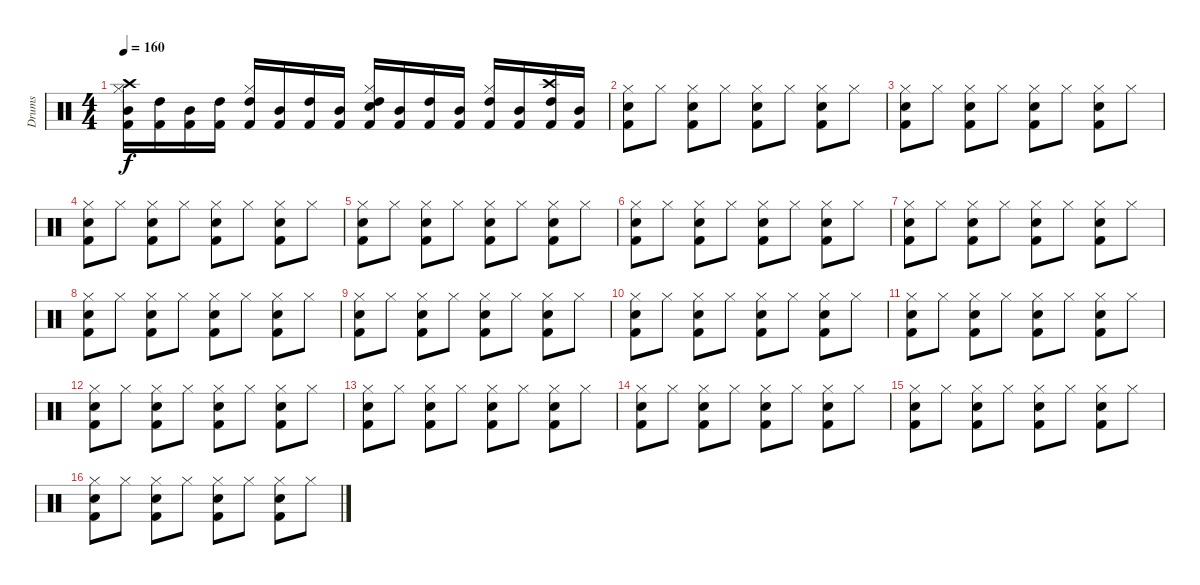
\track ("Drums" "Drums") {instrument percussion}
\staff {score}
\articulation defaults
\ts (4 4)
\tempo 160
\clef neutral
\ks c
("Kick (hit) 2" "Hi-Hat (closed)" "Mid Tom (hit)" "Crash high (hit)").16{dy f} ("Kick (hit) 2" "High Tom (hit)").16 ("Kick (hit) 2" "Mid Tom (hit)").16 ("Kick (hit) 2" "High Tom (hit)").16 ("Kick (hit) 2" "Hi-Hat (closed)" "High Tom (hit)").16 ("Kick (hit) 2" "Mid Tom (hit)").16 ("Kick (hit) 2" "High Tom (hit)").16 ("Kick (hit) 2" "Mid Tom (hit)").16 ("Kick (hit) 2" "Hi-Hat (closed)" "Electric Snare (hit)" "High Tom (hit)").16 ("Kick (hit) 2" "Mid Tom (hit)").16 ("Kick (hit) 2" "High Tom (hit)").16 ("Kick (hit) 2" "Mid Tom (hit)").16 ("Kick (hit) 2" "Hi-Hat (closed)" "High Tom (hit)").16 ("Kick (hit) 2" "Mid Tom (hit)").16 ("Kick (hit) 2" "High Tom (hit)" "Crash high (hit)").16 ("Kick (hit) 2" "Mid Tom (hit)").16 |
("Hi-Hat (closed)" "Kick (hit) 2" "Electric Snare (hit)").8 "Hi-Hat (closed)".8 ("Hi-Hat (closed)" "Kick (hit) 2" "Electric Snare (hit)").8 "Hi-Hat (closed)".8 ("Hi-Hat (closed)" "Kick (hit) 2" "Electric Snare (hit)").8 "Hi-Hat (closed)".8 ("Hi-Hat (closed)" "Kick (hit) 2" "Electric Snare (hit)").8 "Hi-Hat (closed)".8 |
("Hi-Hat (closed)" "Kick (hit) 2" "Electric Snare (hit)").8 "Hi-Hat (closed)".8 ("Hi-Hat (closed)" "Kick (hit) 2" "Electric Snare (hit)").8 "Hi-Hat (closed)".8 ("Hi-Hat (closed)" "Kick (hit) 2" "Electric Snare (hit)").8 "Hi-Hat (closed)".8 ("Hi-Hat (closed)" "Kick (hit) 2" "Electric Snare (hit)").8 "Hi-Hat (closed)".8 |
("Hi-Hat (closed)" "Kick (hit) 2" "Electric Snare (hit)").8 "Hi-Hat (closed)".8 ("Hi-Hat (closed)" "Kick (hit) 2" "Electric Snare (hit)").8 "Hi-Hat (closed)".8 ("Hi-Hat (closed)" "Kick (hit) 2" "Electric Snare (hit)").8 "Hi-Hat (closed)".8 ("Hi-Hat (closed)" "Kick (hit) 2" "Electric Snare (hit)").8 "Hi-Hat (closed)".8 |
("Hi-Hat (closed)" "Kick (hit) 2" "Electric Snare (hit)").8 "Hi-Hat (closed)".8 ("Hi-Hat (closed)" "Kick (hit) 2" "Electric Snare (hit)").8 "Hi-Hat (closed)".8 ("Hi-Hat (closed)" "Kick (hit) 2" "Electric Snare (hit)").8 "Hi-Hat (closed)".8 ("Hi-Hat (closed)" "Kick (hit) 2" "Electric Snare (hit)").8 "Hi-Hat (closed)".8 |
("Hi-Hat (closed)" "Kick (hit) 2" "Electric Snare (hit)").8 "Hi-Hat (closed)".8 ("Hi-Hat (closed)" "Kick (hit) 2" "Electric Snare (hit)").8 "Hi-Hat (closed)".8 ("Hi-Hat (closed)" "Kick (hit) 2" "Electric Snare (hit)").8 "Hi-Hat (closed)".8 ("Hi-Hat (closed)" "Kick (hit) 2" "Electric Snare (hit)").8 "Hi-Hat (closed)".8 |
("Hi-Hat (closed)" "Kick (hit) 2" "Electric Snare (hit)").8 "Hi-Hat (closed)".8 ("Hi-Hat (closed)" "Kick (hit) 2" "Electric Snare (hit)").8 "Hi-Hat (closed)".8 ("Hi-Hat (closed)" "Kick (hit) 2" "Electric Snare (hit)").8 "Hi-Hat (closed)".8 ("Hi-Hat (closed)" "Kick (hit) 2" "Electric Snare (hit)").8 "Hi-Hat (closed)".8 |
("Hi-Hat (closed)" "Kick (hit) 2" "Electric Snare (hit)").8 "Hi-Hat (closed)".8 ("Hi-Hat (closed)" "Kick (hit) 2" "Electric Snare (hit)").8 "Hi-Hat (closed)".8 ("Hi-Hat (closed)" "Kick (hit) 2" "Electric Snare (hit)").8 "Hi-Hat (closed)".8 ("Hi-Hat (closed)" "Kick (hit) 2" "Electric Snare (hit)").8 "Hi-Hat (closed)".8 |
("Hi-Hat (closed)" "Kick (hit) 2" "Electric Snare (hit)").8 "Hi-Hat (closed)".8 ("Hi-Hat (closed)" "Kick (hit) 2" "Electric Snare (hit)").8 "Hi-Hat (closed)".8 ("Hi-Hat (closed)" "Kick (hit) 2" "Electric Snare (hit)").8 "Hi-Hat (closed)".8 ("Hi-Hat (closed)" "Kick (hit) 2" "Electric Snare (hit)").8 "Hi-Hat (closed)".8 |
("Hi-Hat (closed)" "Kick (hit) 2" "Electric Snare (hit)").8 "Hi-Hat (closed)".8 ("Hi-Hat (closed)" "Kick (hit) 2" "Electric Snare (hit)").8 "Hi-Hat (closed)".8 ("Hi-Hat (closed)" "Kick (hit) 2" "Electric Snare (hit)").8 "Hi-Hat (closed)".8 ("Hi-Hat (closed)" "Kick (hit) 2" "Electric Snare (hit)").8 "Hi-Hat (closed)".8 |
("Hi-Hat (closed)" "Kick (hit) 2" "Electric Snare (hit)").8 "Hi-Hat (closed)".8 ("Hi-Hat (closed)" "Kick (hit) 2" "Electric Snare (hit)").8 "Hi-Hat (closed)".8 ("Hi-Hat (closed)" "Kick (hit) 2" "Electric Snare (hit)").8 "Hi-Hat (closed)".8 ("Hi-Hat (closed)" "Kick (hit) 2" "Electric Snare (hit)").8 "Hi-Hat (closed)".8 |
("Hi-Hat (closed)" "Kick (hit) 2" "Electric Snare (hit)").8 "Hi-Hat (closed)".8 ("Hi-Hat (closed)" "Kick (hit) 2" "Electric Snare (hit)").8 "Hi-Hat (closed)".8 ("Hi-Hat (closed)" "Kick (hit) 2" "Electric Snare (hit)").8 "Hi-Hat (closed)".8 ("Hi-Hat (closed)" "Kick (hit) 2" "Electric Snare (hit)").8 "Hi-Hat (closed)".8 |
("Hi-Hat (closed)" "Kick (hit) 2" "Electric Snare (hit)").8 "Hi-Hat (closed)".8 ("Hi-Hat (closed)" "Kick (hit) 2" "Electric Snare (hit)").8 "Hi-Hat (closed)".8 ("Hi-Hat (closed)" "Kick (hit) 2" "Electric Snare (hit)").8 "Hi-Hat (closed)".8 ("Hi-Hat (closed)" "Kick (hit) 2" "Electric Snare (hit)").8 "Hi-Hat (closed)".8 |
("Hi-Hat (closed)" "Kick (hit) 2" "Electric Snare (hit)").8 "Hi-Hat (closed)".8 ("Hi-Hat (closed)" "Kick (hit) 2" "Electric Snare (hit)").8 "Hi-Hat (closed)".8 ("Hi-Hat (closed)" "Kick (hit) 2" "Electric Snare (hit)").8 "Hi-Hat (closed)".8 ("Hi-Hat (closed)" "Kick (hit) 2" "Electric Snare (hit)").8 "Hi-Hat (closed)".8 |
("Hi-Hat (closed)" "Kick (hit) 2" "Electric Snare (hit)").8 "Hi-Hat (closed)".8 ("Hi-Hat (closed)" "Kick (hit) 2" "Electric Snare (hit)").8 "Hi-Hat (closed)".8 ("Hi-Hat (closed)" "Kick (hit) 2" "Electric Snare (hit)").8 "Hi-Hat (closed)".8 ("Hi-Hat (closed)" "Kick (hit) 2" "Electric Snare (hit)").8 "Hi-Hat (closed)".8 |
("Hi-Hat (closed)" "Kick (hit) 2" "Electric Snare (hit)").8 "Hi-Hat (closed)".8 ("Hi-Hat (closed)" "Kick (hit) 2" "Electric Snare (hit)").8 "Hi-Hat (closed)".8 ("Hi-Hat (closed)" "Kick (hit) 2" "Electric Snare (hit)").8 "Hi-Hat (closed)".8 ("Hi-Hat (closed)" "Kick (hit) 2" "Electric Snare (hit)").8 "Hi-Hat (closed)".8
